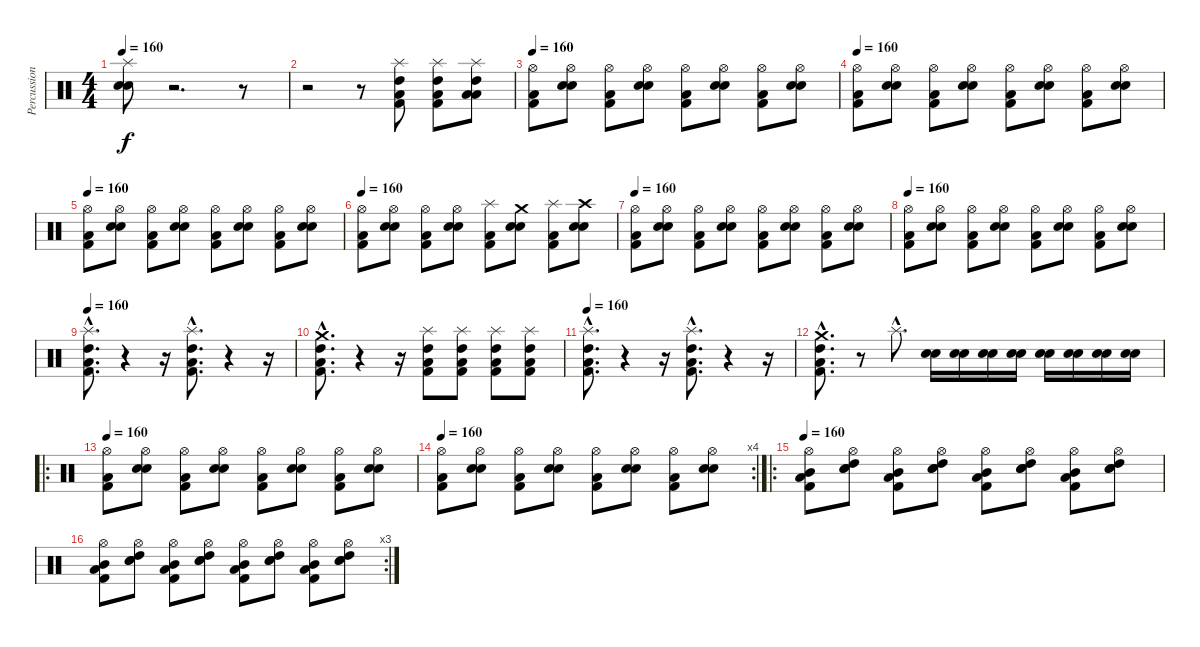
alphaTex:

\track ("Percussions" "Percussion") {instrument percussion}
\staff {score}
\articulation defaults
\ts (4 4)
\tempo 160
\clef neutral
\ks c
("Splash (hit)" "Snare (hit) 2" "Electric Snare (hit)").8{dy f} r.2{d} r.8 |
r.2 r.8 ("Splash (hit)" "High Tom (hit)" "Kick (hit) 2" "Low Floor Tom (hit)").8 ("Splash (hit)" "High Tom (hit)" "Kick (hit) 2" "Low Floor Tom (hit)").8 ("Splash (hit)" "High Tom (hit)" "Low Floor Tom (hit)" "Low Floor Tom (hit)").8 |
\tempo 160
("Hi-Hat (open)" "Kick (hit) 2" "Low Floor Tom (hit)").8 ("Hi-Hat (open)" "Snare (hit) 2" "Electric Snare (hit)").8 ("Hi-Hat (open)" "Kick (hit) 2" "Low Floor Tom (hit)").8 ("Hi-Hat (open)" "Snare (hit) 2" "Electric Snare (hit)").8 ("Hi-Hat (open)" "Kick (hit) 2" "Low Floor Tom (hit)").8 ("Hi-Hat (open)" "Snare (hit) 2" "Electric Snare (hit)").8 ("Hi-Hat (open)" "Kick (hit) 2" "Low Floor Tom (hit)").8 ("Hi-Hat (open)" "Snare (hit) 2" "Electric Snare (hit)").8 |
\tempo 160
("Hi-Hat (open)" "Kick (hit) 2" "Low Floor Tom (hit)").8 ("Hi-Hat (open)" "Snare (hit) 2" "Electric Snare (hit)").8 ("Hi-Hat (open)" "Kick (hit) 2" "Low Floor Tom (hit)").8 ("Hi-Hat (open)" "Snare (hit) 2" "Electric Snare (hit)").8 ("Hi-Hat (open)" "Kick (hit) 2" "Low Floor Tom (hit)").8 ("Hi-Hat (open)" "Snare (hit) 2" "Electric Snare (hit)").8 ("Hi-Hat (open)" "Kick (hit) 2" "Low Floor Tom (hit)").8 ("Hi-Hat (open)" "Snare (hit) 2" "Electric Snare (hit)").8 |
\tempo 160
("Hi-Hat (open)" "Kick (hit) 2" "Low Floor Tom (hit)").8 ("Hi-Hat (open)" "Snare (hit) 2" "Electric Snare (hit)").8 ("Hi-Hat (open)" "Kick (hit) 2" "Low Floor Tom (hit)").8 ("Hi-Hat (open)" "Snare (hit) 2" "Electric Snare (hit)").8 ("Hi-Hat (open)" "Kick (hit) 2" "Low Floor Tom (hit)").8 ("Hi-Hat (open)" "Snare (hit) 2" "Electric Snare (hit)").8 ("Hi-Hat (open)" "Kick (hit) 2" "Low Floor Tom (hit)").8 ("Hi-Hat (open)" "Snare (hit) 2" "Electric Snare (hit)").8 |
\tempo 160
("Hi-Hat (open)" "Kick (hit) 2" "Low Floor Tom (hit)").8 ("Hi-Hat (open)" "Snare (hit) 2" "Electric Snare (hit)").8 ("Hi-Hat (open)" "Kick (hit) 2" "Low Floor Tom (hit)").8 ("Hi-Hat (open)" "Snare (hit) 2" "Electric Snare (hit)").8 ("Splash (hit)" "Kick (hit) 2" "Low Floor Tom (hit)").8 ("Crash medium (hit)" "Snare (hit) 2" "Electric Snare (hit)").8 ("Splash (hit)" "Kick (hit) 2" "Low Floor Tom (hit)").8 ("Crash high (hit)" "Snare (hit) 2" "Electric Snare (hit)").8 |
\tempo 160
("Hi-Hat (open)" "Kick (hit) 2" "Low Floor Tom (hit)").8 ("Hi-Hat (open)" "Snare (hit) 2" "Electric Snare (hit)").8 ("Hi-Hat (open)" "Kick (hit) 2" "Low Floor Tom (hit)").8 ("Hi-Hat (open)" "Snare (hit) 2" "Electric Snare (hit)").8 ("Hi-Hat (open)" "Kick (hit) 2" "Low Floor Tom (hit)").8 ("Hi-Hat (open)" "Snare (hit) 2" "Electric Snare (hit)").8 ("Hi-Hat (open)" "Kick (hit) 2" "Low Floor Tom (hit)").8 ("Hi-Hat (open)" "Snare (hit) 2" "Electric Snare (hit)").8 |
\tempo 160
("Hi-Hat (open)" "Kick (hit) 2" "Low Floor Tom (hit)").8 ("Hi-Hat (open)" "Snare (hit) 2" "Electric Snare (hit)").8 ("Hi-Hat (open)" "Kick (hit) 2" "Low Floor Tom (hit)").8 ("Hi-Hat (open)" "Snare (hit) 2" "Electric Snare (hit)").8 ("Hi-Hat (open)" "Kick (hit) 2" "Low Floor Tom (hit)").8 ("Hi-Hat (open)" "Snare (hit) 2" "Electric Snare (hit)").8 ("Hi-Hat (open)" "Kick (hit) 2" "Low Floor Tom (hit)").8 ("Hi-Hat (open)" "Snare (hit) 2" "Electric Snare (hit)").8 |
\tempo 160
("Splash (hit)"{hac} "High Tom (hit)"{hac} "Kick (hit) 2"{hac} "Low Floor Tom (hit)"{hac}).8{d} r.4 r.16 ("Splash (hit)"{hac} "High Tom (hit)"{hac} "Kick (hit) 2"{hac} "Low Floor Tom (hit)"{hac}).8{d} r.4 r.16 |
("Crash medium (hit)"{hac} "High Tom (hit)"{hac} "Kick (hit) 2"{hac} "Low Floor Tom (hit)"{hac}).8{d} r.4 r.16 ("Splash (hit)" "High Tom (hit)" "Kick (hit) 2" "Low Floor Tom (hit)").8 ("Splash (hit)" "High Tom (hit)" "Kick (hit) 2" "Low Floor Tom (hit)").8 ("Splash (hit)" "High Tom (hit)" "Kick (hit) 2" "Low Floor Tom (hit)").8 ("Splash (hit)" "High Tom (hit)" "Kick (hit) 2" "Low Floor Tom (hit)").8 |
\tempo 160
("Splash (hit)"{hac} "High Tom (hit)"{hac} "Kick (hit) 2"{hac} "Low Floor Tom (hit)"{hac}).8{d} r.4 r.16 ("Splash (hit)"{hac} "High Tom (hit)"{hac} "Kick (hit) 2"{hac} "Low Floor Tom (hit)"{hac}).8{d} r.4 r.16 |
("Crash medium (hit)"{hac} "High Tom (hit)"{hac} "Kick (hit) 2"{hac} "Low Floor Tom (hit)"{hac}).8{d} r.8 "Splash (hit)"{hac}.8{d} ("Snare (hit) 2" "Electric Snare (hit)").16 ("Snare (hit) 2" "Electric Snare (hit)").16 ("Snare (hit) 2" "Electric Snare (hit)").16 ("Snare (hit) 2" "Electric Snare (hit)").16 ("Snare (hit) 2" "Electric Snare (hit)").16 ("Snare (hit) 2" "Electric Snare (hit)").16 ("Snare (hit) 2" "Electric Snare (hit)").16 ("Snare (hit) 2" "Electric Snare (hit)").16 |
\ro
\tempo 160
("Hi-Hat (open)" "Kick (hit) 2" "Low Floor Tom (hit)").8 ("Hi-Hat (open)" "Snare (hit) 2" "Electric Snare (hit)").8 ("Hi-Hat (open)" "Kick (hit) 2" "Low Floor Tom (hit)").8 ("Hi-Hat (open)" "Snare (hit) 2" "Electric Snare (hit)").8 ("Hi-Hat (open)" "Kick (hit) 2" "Low Floor Tom (hit)").8 ("Hi-Hat (open)" "Snare (hit) 2" "Electric Snare (hit)").8 ("Hi-Hat (open)" "Kick (hit) 2" "Low Floor Tom (hit)").8 ("Hi-Hat (open)" "Snare (hit) 2" "Electric Snare (hit)").8 |
\rc 4
\tempo 160
("Hi-Hat (open)" "Kick (hit) 2" "Low Floor Tom (hit)").8 ("Hi-Hat (open)" "Snare (hit) 2" "Electric Snare (hit)").8 ("Hi-Hat (open)" "Kick (hit) 2" "Low Floor Tom (hit)").8 ("Hi-Hat (open)" "Snare (hit) 2" "Electric Snare (hit)").8 ("Hi-Hat (open)" "Kick (hit) 2" "Low Floor Tom (hit)").8 ("Hi-Hat (open)" "Snare (hit) 2" "Electric Snare (hit)").8 ("Hi-Hat (open)" "Kick (hit) 2" "Low Floor Tom (hit)").8 ("Hi-Hat (open)" "Snare (hit) 2" "Electric Snare (hit)").8 |
\ro
\tempo 160
("Hi-Hat (open)" "Kick (hit) 2" "Low Floor Tom (hit)" "Mid Tom (hit)").8 ("Hi-Hat (open)" "Snare (hit) 2" "Electric Snare (hit)" "High Tom (hit)").8 ("Hi-Hat (open)" "Kick (hit) 2" "Low Floor Tom (hit)" "Mid Tom (hit)").8 ("Hi-Hat (open)" "Snare (hit) 2" "Electric Snare (hit)" "High Tom (hit)").8 ("Hi-Hat (open)" "Kick (hit) 2" "Low Floor Tom (hit)" "Mid Tom (hit)").8 ("Hi-Hat (open)" "Snare (hit) 2" "Electric Snare (hit)" "High Tom (hit)").8 ("Hi-Hat (open)" "Kick (hit) 2" "Low Floor Tom (hit)" "Mid Tom (hit)").8 ("Hi-Hat (open)" "Snare (hit) 2" "Electric Snare (hit)" "High Tom (hit)").8 |
\rc 3
("Hi-Hat (open)" "Kick (hit) 2" "Low Floor Tom (hit)" "Mid Tom (hit)").8 ("Hi-Hat (open)" "Snare (hit) 2" "Electric Snare (hit)" "High Tom (hit)").8 ("Hi-Hat (open)" "Kick (hit) 2" "Low Floor Tom (hit)" "Mid Tom (hit)").8 ("Hi-Hat (open)" "Snare (hit) 2" "Electric Snare (hit)" "High Tom (hit)").8 ("Hi-Hat (open)" "Kick (hit) 2" "Low Floor Tom (hit)" "Mid Tom (hit)").8 ("Hi-Hat (open)" "Snare (hit) 2" "Electric Snare (hit)" "High Tom (hit)").8 ("Hi-Hat (open)" "Kick (hit) 2" "Low Floor Tom (hit)" "Mid Tom (hit)").8 ("Hi-Hat (open)" "Snare (hit) 2" "Electric Snare (hit)" "High Tom (hit)").8
